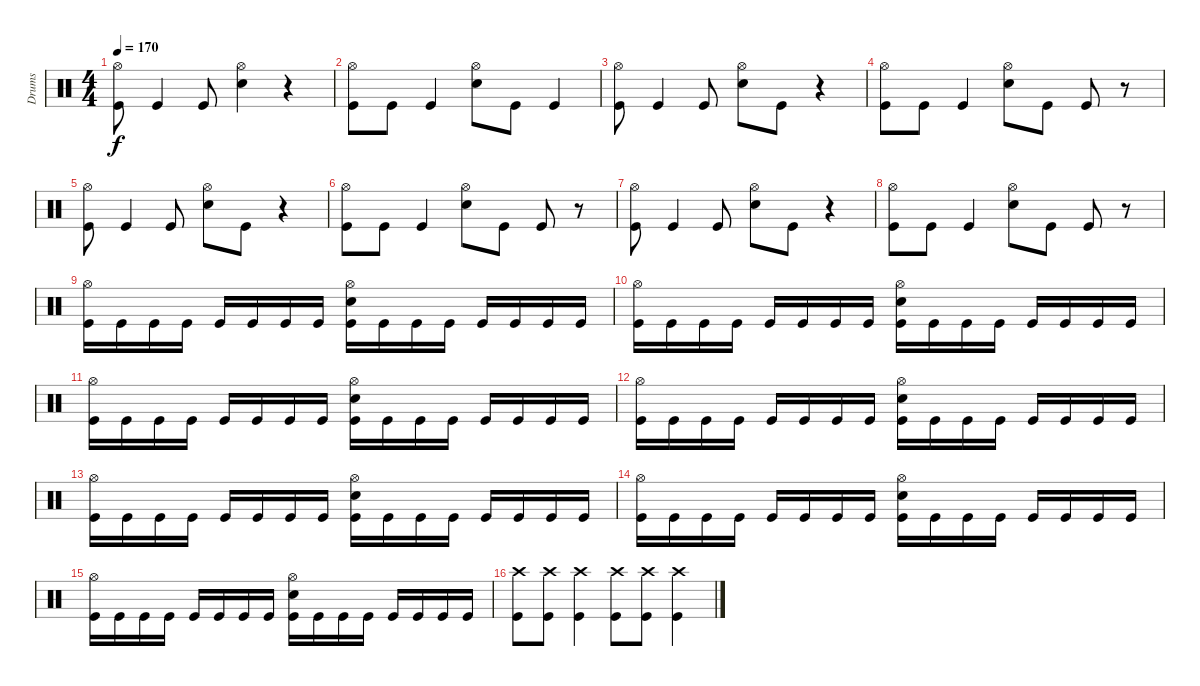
\track ("Drums" "Drums") {instrument percussion}
\staff {score}
\articulation defaults
\ts (4 4)
\tempo 170
\clef neutral
\ks c
("Hi-Hat (open)" "Kick (hit)").8{dy f} "Kick (hit)".4 "Kick (hit)".8 ("Hi-Hat (open)" "Snare (hit) 2").4 r.4 |
("Hi-Hat (open)" "Kick (hit)").8 "Kick (hit)".8 "Kick (hit)".4 ("Hi-Hat (open)" "Snare (hit) 2").8 "Kick (hit)".8 "Kick (hit)".4 |
("Hi-Hat (open)" "Kick (hit)").8 "Kick (hit)".4 "Kick (hit)".8 ("Hi-Hat (open)" "Snare (hit) 2").8 "Kick (hit)".8 r.4 |
("Hi-Hat (open)" "Kick (hit)").8 "Kick (hit)".8 "Kick (hit)".4 ("Hi-Hat (open)" "Snare (hit) 2").8 "Kick (hit)".8 "Kick (hit)".8 r.8 |
("Hi-Hat (open)" "Kick (hit)").8 "Kick (hit)".4 "Kick (hit)".8 ("Hi-Hat (open)" "Snare (hit) 2").8 "Kick (hit)".8 r.4 |
("Hi-Hat (open)" "Kick (hit)").8 "Kick (hit)".8 "Kick (hit)".4 ("Hi-Hat (open)" "Snare (hit) 2").8 "Kick (hit)".8 "Kick (hit)".8 r.8 |
("Hi-Hat (open)" "Kick (hit)").8 "Kick (hit)".4 "Kick (hit)".8 ("Hi-Hat (open)" "Snare (hit) 2").8 "Kick (hit)".8 r.4 |
("Hi-Hat (open)" "Kick (hit)").8 "Kick (hit)".8 "Kick (hit)".4 ("Hi-Hat (open)" "Snare (hit) 2").8 "Kick (hit)".8 "Kick (hit)".8 r.8 |
("Hi-Hat (open)" "Kick (hit)").16 "Kick (hit)".16 "Kick (hit)".16 "Kick (hit)".16 "Kick (hit)".16 "Kick (hit)".16 "Kick (hit)".16 "Kick (hit)".16 ("Hi-Hat (open)" "Snare (hit) 2" "Kick (hit)").16 "Kick (hit)".16 "Kick (hit)".16 "Kick (hit)".16 "Kick (hit)".16 "Kick (hit)".16 "Kick (hit)".16 "Kick (hit)".16 |
("Hi-Hat (open)" "Kick (hit)").16 "Kick (hit)".16 "Kick (hit)".16 "Kick (hit)".16 "Kick (hit)".16 "Kick (hit)".16 "Kick (hit)".16 "Kick (hit)".16 ("Hi-Hat (open)" "Snare (hit) 2" "Kick (hit)").16 "Kick (hit)".16 "Kick (hit)".16 "Kick (hit)".16 "Kick (hit)".16 "Kick (hit)".16 "Kick (hit)".16 "Kick (hit)".16 |
("Hi-Hat (open)" "Kick (hit)").16 "Kick (hit)".16 "Kick (hit)".16 "Kick (hit)".16 "Kick (hit)".16 "Kick (hit)".16 "Kick (hit)".16 "Kick (hit)".16 ("Hi-Hat (open)" "Snare (hit) 2" "Kick (hit)").16 "Kick (hit)".16 "Kick (hit)".16 "Kick (hit)".16 "Kick (hit)".16 "Kick (hit)".16 "Kick (hit)".16 "Kick (hit)".16 |
("Hi-Hat (open)" "Kick (hit)").16 "Kick (hit)".16 "Kick (hit)".16 "Kick (hit)".16 "Kick (hit)".16 "Kick (hit)".16 "Kick (hit)".16 "Kick (hit)".16 ("Hi-Hat (open)" "Snare (hit) 2" "Kick (hit)").16 "Kick (hit)".16 "Kick (hit)".16 "Kick (hit)".16 "Kick (hit)".16 "Kick (hit)".16 "Kick (hit)".16 "Kick (hit)".16 |
("Hi-Hat (open)" "Kick (hit)").16 "Kick (hit)".16 "Kick (hit)".16 "Kick (hit)".16 "Kick (hit)".16 "Kick (hit)".16 "Kick (hit)".16 "Kick (hit)".16 ("Hi-Hat (open)" "Snare (hit) 2" "Kick (hit)").16 "Kick (hit)".16 "Kick (hit)".16 "Kick (hit)".16 "Kick (hit)".16 "Kick (hit)".16 "Kick (hit)".16 "Kick (hit)".16 |
("Hi-Hat (open)" "Kick (hit)").16 "Kick (hit)".16 "Kick (hit)".16 "Kick (hit)".16 "Kick (hit)".16 "Kick (hit)".16 "Kick (hit)".16 "Kick (hit)".16 ("Hi-Hat (open)" "Snare (hit) 2" "Kick (hit)").16 "Kick (hit)".16 "Kick (hit)".16 "Kick (hit)".16 "Kick (hit)".16 "Kick (hit)".16 "Kick (hit)".16 "Kick (hit)".16 |
("Hi-Hat (open)" "Kick (hit)").16 "Kick (hit)".16 "Kick (hit)".16 "Kick (hit)".16 "Kick (hit)".16 "Kick (hit)".16 "Kick (hit)".16 "Kick (hit)".16 ("Hi-Hat (open)" "Snare (hit) 2" "Kick (hit)").16 "Kick (hit)".16 "Kick (hit)".16 "Kick (hit)".16 "Kick (hit)".16 "Kick (hit)".16 "Kick (hit)".16 "Kick (hit)".16 |
("Crash high (hit)" "Kick (hit)").8 ("Crash high (hit)" "Kick (hit)").8 ("Crash high (hit)" "Kick (hit)").4 ("Crash high (hit)" "Kick (hit)").8 ("Crash high (hit)" "Kick (hit)").8 ("Crash high (hit)" "Kick (hit)").4
